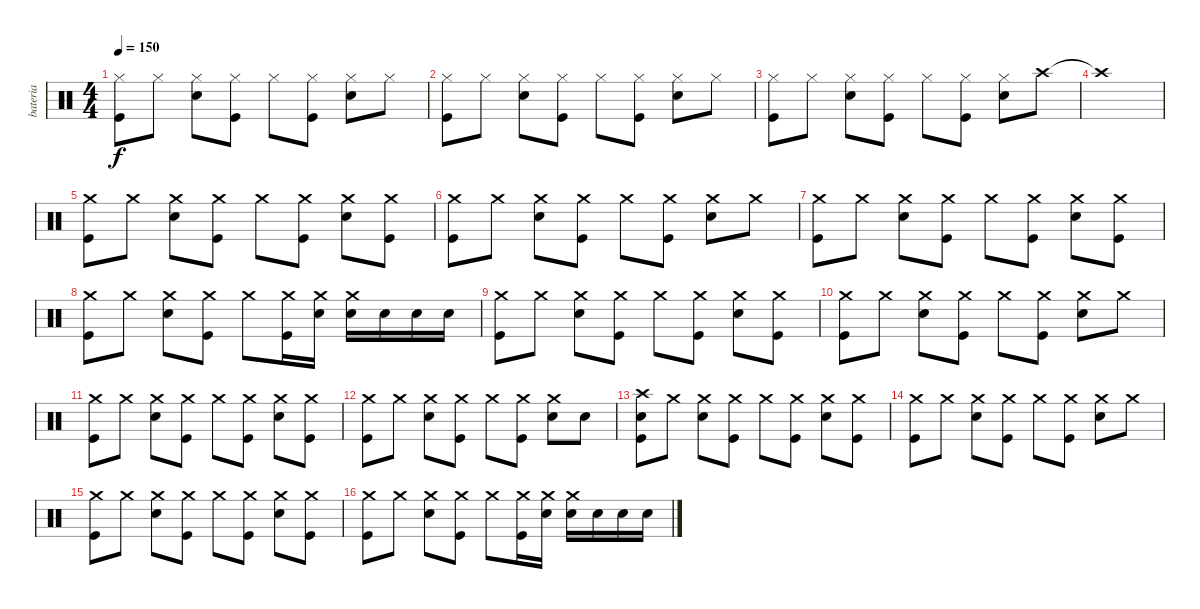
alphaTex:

\track ("bateria" "bateria") {instrument percussion}
\staff {score}
\articulation defaults
\ts (4 4)
\tempo 150
\clef neutral
\ks c
("Hi-Hat (closed)" "Kick (hit)").8{dy f} "Hi-Hat (closed)".8 ("Hi-Hat (closed)" "Electric Snare (hit)").8 ("Hi-Hat (closed)" "Kick (hit)").8 "Hi-Hat (closed)".8 ("Hi-Hat (closed)" "Kick (hit)").8 ("Hi-Hat (closed)" "Electric Snare (hit)").8 "Hi-Hat (closed)".8 |
("Hi-Hat (closed)" "Kick (hit)").8 "Hi-Hat (closed)".8 ("Hi-Hat (closed)" "Electric Snare (hit)").8 ("Hi-Hat (closed)" "Kick (hit)").8 "Hi-Hat (closed)".8 ("Hi-Hat (closed)" "Kick (hit)").8 ("Hi-Hat (closed)" "Electric Snare (hit)").8 "Hi-Hat (closed)".8 |
("Hi-Hat (closed)" "Kick (hit)").8 "Hi-Hat (closed)".8 ("Hi-Hat (closed)" "Electric Snare (hit)").8 ("Hi-Hat (closed)" "Kick (hit)").8 "Hi-Hat (closed)".8 ("Hi-Hat (closed)" "Kick (hit)").8 ("Hi-Hat (closed)" "Electric Snare (hit)").8 "Crash high (hit)".8 |
"Crash high (hit)"{t}.1 |
("Crash medium (hit)" "Kick (hit)").8 "Crash medium (hit)".8 ("Crash medium (hit)" "Electric Snare (hit)").8 ("Crash medium (hit)" "Kick (hit)").8 "Crash medium (hit)".8 ("Crash medium (hit)" "Kick (hit)").8 ("Crash medium (hit)" "Electric Snare (hit)").8 ("Crash medium (hit)" "Kick (hit)").8 |
("Crash medium (hit)" "Kick (hit)").8 "Crash medium (hit)".8 ("Crash medium (hit)" "Electric Snare (hit)").8 ("Crash medium (hit)" "Kick (hit)").8 "Crash medium (hit)".8 ("Crash medium (hit)" "Kick (hit)").8 ("Crash medium (hit)" "Electric Snare (hit)").8 "Crash medium (hit)".8 |
("Crash medium (hit)" "Kick (hit)").8 "Crash medium (hit)".8 ("Crash medium (hit)" "Electric Snare (hit)").8 ("Crash medium (hit)" "Kick (hit)").8 "Crash medium (hit)".8 ("Crash medium (hit)" "Kick (hit)").8 ("Crash medium (hit)" "Electric Snare (hit)").8 ("Crash medium (hit)" "Kick (hit)").8 |
("Crash medium (hit)" "Kick (hit)").8 "Crash medium (hit)".8 ("Crash medium (hit)" "Electric Snare (hit)").8 ("Crash medium (hit)" "Kick (hit)").8 "Crash medium (hit)".8 ("Crash medium (hit)" "Kick (hit)").16 ("Crash medium (hit)" "Electric Snare (hit)").16 ("Crash medium (hit)" "Electric Snare (hit)").16 "Electric Snare (hit)".16 "Electric Snare (hit)".16 "Electric Snare (hit)".16 |
("Crash medium (hit)" "Kick (hit)").8 "Crash medium (hit)".8 ("Crash medium (hit)" "Electric Snare (hit)").8 ("Crash medium (hit)" "Kick (hit)").8 "Crash medium (hit)".8 ("Crash medium (hit)" "Kick (hit)").8 ("Crash medium (hit)" "Electric Snare (hit)").8 ("Crash medium (hit)" "Kick (hit)").8 |
("Crash medium (hit)" "Kick (hit)").8 "Crash medium (hit)".8 ("Crash medium (hit)" "Electric Snare (hit)").8 ("Crash medium (hit)" "Kick (hit)").8 "Crash medium (hit)".8 ("Crash medium (hit)" "Kick (hit)").8 ("Crash medium (hit)" "Electric Snare (hit)").8 "Crash medium (hit)".8 |
("Crash medium (hit)" "Kick (hit)").8 "Crash medium (hit)".8 ("Crash medium (hit)" "Electric Snare (hit)").8 ("Crash medium (hit)" "Kick (hit)").8 "Crash medium (hit)".8 ("Crash medium (hit)" "Kick (hit)").8 ("Crash medium (hit)" "Electric Snare (hit)").8 ("Crash medium (hit)" "Kick (hit)").8 |
("Crash medium (hit)" "Kick (hit)").8 "Crash medium (hit)".8 ("Crash medium (hit)" "Electric Snare (hit)").8 ("Crash medium (hit)" "Kick (hit)").8 "Crash medium (hit)".8 ("Crash medium (hit)" "Kick (hit)").8 ("Crash medium (hit)" "Electric Snare (hit)").8 "Electric Snare (hit)".8 |
("Crash high (hit)" "Electric Snare (hit)" "Kick (hit)").8 "Crash medium (hit)".8 ("Crash medium (hit)" "Electric Snare (hit)").8 ("Crash medium (hit)" "Kick (hit)").8 "Crash medium (hit)".8 ("Crash medium (hit)" "Kick (hit)").8 ("Crash medium (hit)" "Electric Snare (hit)").8 ("Crash medium (hit)" "Kick (hit)").8 |
("Crash medium (hit)" "Kick (hit)").8 "Crash medium (hit)".8 ("Crash medium (hit)" "Electric Snare (hit)").8 ("Crash medium (hit)" "Kick (hit)").8 "Crash medium (hit)".8 ("Crash medium (hit)" "Kick (hit)").8 ("Crash medium (hit)" "Electric Snare (hit)").8 "Crash medium (hit)".8 |
("Crash medium (hit)" "Kick (hit)").8 "Crash medium (hit)".8 ("Crash medium (hit)" "Electric Snare (hit)").8 ("Crash medium (hit)" "Kick (hit)").8 "Crash medium (hit)".8 ("Crash medium (hit)" "Kick (hit)").8 ("Crash medium (hit)" "Electric Snare (hit)").8 ("Crash medium (hit)" "Kick (hit)").8 |
("Crash medium (hit)" "Kick (hit)").8 "Crash medium (hit)".8 ("Crash medium (hit)" "Electric Snare (hit)").8 ("Crash medium (hit)" "Kick (hit)").8 "Crash medium (hit)".8 ("Crash medium (hit)" "Kick (hit)").16 ("Crash medium (hit)" "Electric Snare (hit)").16 ("Crash medium (hit)" "Electric Snare (hit)").16 "Electric Snare (hit)".16 "Electric Snare (hit)".16 "Electric Snare (hit)".16
